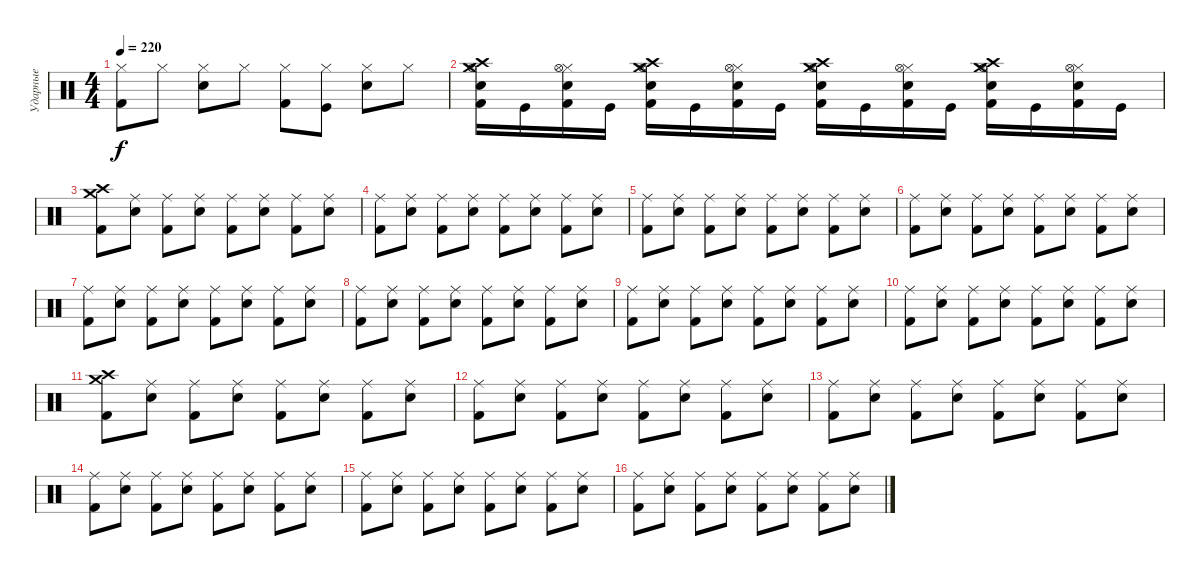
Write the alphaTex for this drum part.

\track ("Ударные" "Ударные") {instrument percussion}
\staff {score}
\articulation defaults
\ts (4 4)
\tempo 220
\clef neutral
\ks c
("Hi-Hat (closed)" "Kick (hit) 2").8{dy f} "Hi-Hat (closed)".8 ("Hi-Hat (closed)" "Snare (hit) 2").8 "Hi-Hat (closed)".8 ("Hi-Hat (closed)" "Kick (hit) 2").8 ("Hi-Hat (closed)" "Kick (hit)").8 ("Hi-Hat (closed)" "Snare (hit) 2").8 "Hi-Hat (closed)".8 |
("Crash high (hit)" "Crash medium (hit)" "Snare (hit) 2" "Hi-Hat (open)" "Kick (hit) 2").16 "Kick (hit)".16 ("Hi-Hat (closed)" "Snare (hit) 2" "Hi-Hat (open)" "Kick (hit) 2").16 "Kick (hit)".16 ("Crash high (hit)" "Snare (hit) 2" "Crash medium (hit)" "Hi-Hat (open)" "Kick (hit) 2").16 "Kick (hit)".16 ("Hi-Hat (closed)" "Snare (hit) 2" "Hi-Hat (open)" "Kick (hit) 2").16 "Kick (hit)".16 ("Crash high (hit)" "Crash medium (hit)" "Snare (hit) 2" "Hi-Hat (open)" "Kick (hit) 2").16 "Kick (hit)".16 ("Hi-Hat (closed)" "Snare (hit) 2" "Hi-Hat (open)" "Kick (hit) 2").16 "Kick (hit)".16 ("Crash high (hit)" "Snare (hit) 2" "Crash medium (hit)" "Hi-Hat (open)" "Kick (hit) 2").16 "Kick (hit)".16 ("Hi-Hat (closed)" "Snare (hit) 2" "Hi-Hat (open)" "Kick (hit) 2").16 "Kick (hit)".16 |
("Crash high (hit)" "Crash medium (hit)" "Kick (hit) 2").8 ("Ride (middle)" "Snare (hit) 2").8 ("Ride (middle)" "Kick (hit) 2").8 ("Ride (middle)" "Snare (hit) 2").8 ("Ride (middle)" "Kick (hit) 2").8 ("Ride (middle)" "Snare (hit) 2").8 ("Ride (middle)" "Kick (hit) 2").8 ("Ride (middle)" "Snare (hit) 2").8 |
("Ride (middle)" "Kick (hit) 2").8 ("Ride (middle)" "Snare (hit) 2").8 ("Ride (middle)" "Kick (hit) 2").8 ("Ride (middle)" "Snare (hit) 2").8 ("Ride (middle)" "Kick (hit) 2").8 ("Ride (middle)" "Snare (hit) 2").8 ("Ride (middle)" "Kick (hit) 2").8 ("Ride (middle)" "Snare (hit) 2").8 |
("Ride (middle)" "Kick (hit) 2").8 ("Ride (middle)" "Snare (hit) 2").8 ("Ride (middle)" "Kick (hit) 2").8 ("Ride (middle)" "Snare (hit) 2").8 ("Ride (middle)" "Kick (hit) 2").8 ("Ride (middle)" "Snare (hit) 2").8 ("Ride (middle)" "Kick (hit) 2").8 ("Ride (middle)" "Snare (hit) 2").8 |
("Ride (middle)" "Kick (hit) 2").8 ("Ride (middle)" "Snare (hit) 2").8 ("Ride (middle)" "Kick (hit) 2").8 ("Ride (middle)" "Snare (hit) 2").8 ("Ride (middle)" "Kick (hit) 2").8 ("Ride (middle)" "Snare (hit) 2").8 ("Ride (middle)" "Kick (hit) 2").8 ("Ride (middle)" "Snare (hit) 2").8 |
("Ride (middle)" "Kick (hit) 2").8 ("Ride (middle)" "Snare (hit) 2").8 ("Ride (middle)" "Kick (hit) 2").8 ("Ride (middle)" "Snare (hit) 2").8 ("Ride (middle)" "Kick (hit) 2").8 ("Ride (middle)" "Snare (hit) 2").8 ("Ride (middle)" "Kick (hit) 2").8 ("Ride (middle)" "Snare (hit) 2").8 |
("Ride (middle)" "Kick (hit) 2").8 ("Ride (middle)" "Snare (hit) 2").8 ("Ride (middle)" "Kick (hit) 2").8 ("Ride (middle)" "Snare (hit) 2").8 ("Ride (middle)" "Kick (hit) 2").8 ("Ride (middle)" "Snare (hit) 2").8 ("Ride (middle)" "Kick (hit) 2").8 ("Ride (middle)" "Snare (hit) 2").8 |
("Ride (middle)" "Kick (hit) 2").8 ("Ride (middle)" "Snare (hit) 2").8 ("Ride (middle)" "Kick (hit) 2").8 ("Ride (middle)" "Snare (hit) 2").8 ("Ride (middle)" "Kick (hit) 2").8 ("Ride (middle)" "Snare (hit) 2").8 ("Ride (middle)" "Kick (hit) 2").8 ("Ride (middle)" "Snare (hit) 2").8 |
("Ride (middle)" "Kick (hit) 2").8 ("Ride (middle)" "Snare (hit) 2").8 ("Ride (middle)" "Kick (hit) 2").8 ("Ride (middle)" "Snare (hit) 2").8 ("Ride (middle)" "Kick (hit) 2").8 ("Ride (middle)" "Snare (hit) 2").8 ("Ride (middle)" "Kick (hit) 2").8 ("Ride (middle)" "Snare (hit) 2").8 |
("Crash high (hit)" "Crash medium (hit)" "Kick (hit) 2").8 ("Ride (middle)" "Snare (hit) 2").8 ("Ride (middle)" "Kick (hit) 2").8 ("Ride (middle)" "Snare (hit) 2").8 ("Ride (middle)" "Kick (hit) 2").8 ("Ride (middle)" "Snare (hit) 2").8 ("Ride (middle)" "Kick (hit) 2").8 ("Ride (middle)" "Snare (hit) 2").8 |
("Ride (middle)" "Kick (hit) 2").8 ("Ride (middle)" "Snare (hit) 2").8 ("Ride (middle)" "Kick (hit) 2").8 ("Ride (middle)" "Snare (hit) 2").8 ("Ride (middle)" "Kick (hit) 2").8 ("Ride (middle)" "Snare (hit) 2").8 ("Ride (middle)" "Kick (hit) 2").8 ("Ride (middle)" "Snare (hit) 2").8 |
("Ride (middle)" "Kick (hit) 2").8 ("Ride (middle)" "Snare (hit) 2").8 ("Ride (middle)" "Kick (hit) 2").8 ("Ride (middle)" "Snare (hit) 2").8 ("Ride (middle)" "Kick (hit) 2").8 ("Ride (middle)" "Snare (hit) 2").8 ("Ride (middle)" "Kick (hit) 2").8 ("Ride (middle)" "Snare (hit) 2").8 |
("Ride (middle)" "Kick (hit) 2").8 ("Ride (middle)" "Snare (hit) 2").8 ("Ride (middle)" "Kick (hit) 2").8 ("Ride (middle)" "Snare (hit) 2").8 ("Ride (middle)" "Kick (hit) 2").8 ("Ride (middle)" "Snare (hit) 2").8 ("Ride (middle)" "Kick (hit) 2").8 ("Ride (middle)" "Snare (hit) 2").8 |
("Ride (middle)" "Kick (hit) 2").8 ("Ride (middle)" "Snare (hit) 2").8 ("Ride (middle)" "Kick (hit) 2").8 ("Ride (middle)" "Snare (hit) 2").8 ("Ride (middle)" "Kick (hit) 2").8 ("Ride (middle)" "Snare (hit) 2").8 ("Ride (middle)" "Kick (hit) 2").8 ("Ride (middle)" "Snare (hit) 2").8 |
("Ride (middle)" "Kick (hit) 2").8 ("Ride (middle)" "Snare (hit) 2").8 ("Ride (middle)" "Kick (hit) 2").8 ("Ride (middle)" "Snare (hit) 2").8 ("Ride (middle)" "Kick (hit) 2").8 ("Ride (middle)" "Snare (hit) 2").8 ("Ride (middle)" "Kick (hit) 2").8 ("Ride (middle)" "Snare (hit) 2").8
